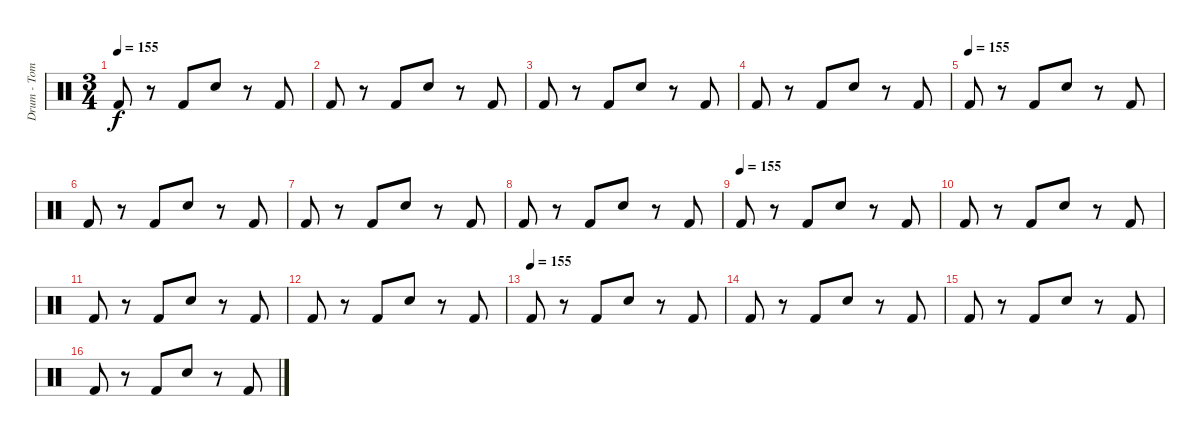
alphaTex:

\track ("Drum - Tom" "Drum - Tom") {instrument percussion}
\staff {score}
\articulation defaults
\ts (3 4)
\tempo 155
\clef neutral
\ks c "Kick (hit) 2".8{dy f}
r.8 "Kick (hit) 2".8 "Electric Snare (hit)".8 r.8 "Kick (hit) 2".8 |
"Kick (hit) 2".8 r.8 "Kick (hit) 2".8 "Electric Snare (hit)".8 r.8 "Kick (hit) 2".8 |
"Kick (hit) 2".8 r.8 "Kick (hit) 2".8 "Electric Snare (hit)".8 r.8 "Kick (hit) 2".8 |
"Kick (hit) 2".8 r.8 "Kick (hit) 2".8 "Electric Snare (hit)".8 r.8 "Kick (hit) 2".8 |
\tempo (155)
"Kick (hit) 2".8 r.8 "Kick (hit) 2".8 "Electric Snare (hit)".8 r.8 "Kick (hit) 2".8 |
"Kick (hit) 2".8 r.8 "Kick (hit) 2".8 "Electric Snare (hit)".8 r.8 "Kick (hit) 2".8 |
"Kick (hit) 2".8 r.8 "Kick (hit) 2".8 "Electric Snare (hit)".8 r.8 "Kick (hit) 2".8 |
"Kick (hit) 2".8 r.8 "Kick (hit) 2".8 "Electric Snare (hit)".8 r.8 "Kick (hit) 2".8 |
\tempo (155)
"Kick (hit) 2".8 r.8 "Kick (hit) 2".8 "Electric Snare (hit)".8 r.8 "Kick (hit) 2".8 |
"Kick (hit) 2".8 r.8 "Kick (hit) 2".8 "Electric Snare (hit)".8 r.8 "Kick (hit) 2".8 |
"Kick (hit) 2".8 r.8 "Kick (hit) 2".8 "Electric Snare (hit)".8 r.8 "Kick (hit) 2".8 |
"Kick (hit) 2".8 r.8 "Kick (hit) 2".8 "Electric Snare (hit)".8 r.8 "Kick (hit) 2".8 |
\tempo (155)
"Kick (hit) 2".8 r.8 "Kick (hit) 2".8 "Electric Snare (hit)".8 r.8 "Kick (hit) 2".8 |
"Kick (hit) 2".8 r.8 "Kick (hit) 2".8 "Electric Snare (hit)".8 r.8 "Kick (hit) 2".8 |
"Kick (hit) 2".8 r.8 "Kick (hit) 2".8 "Electric Snare (hit)".8 r.8 "Kick (hit) 2".8 |
"Kick (hit) 2".8 r.8 "Kick (hit) 2".8 "Electric Snare (hit)".8 r.8 "Kick (hit) 2".8
